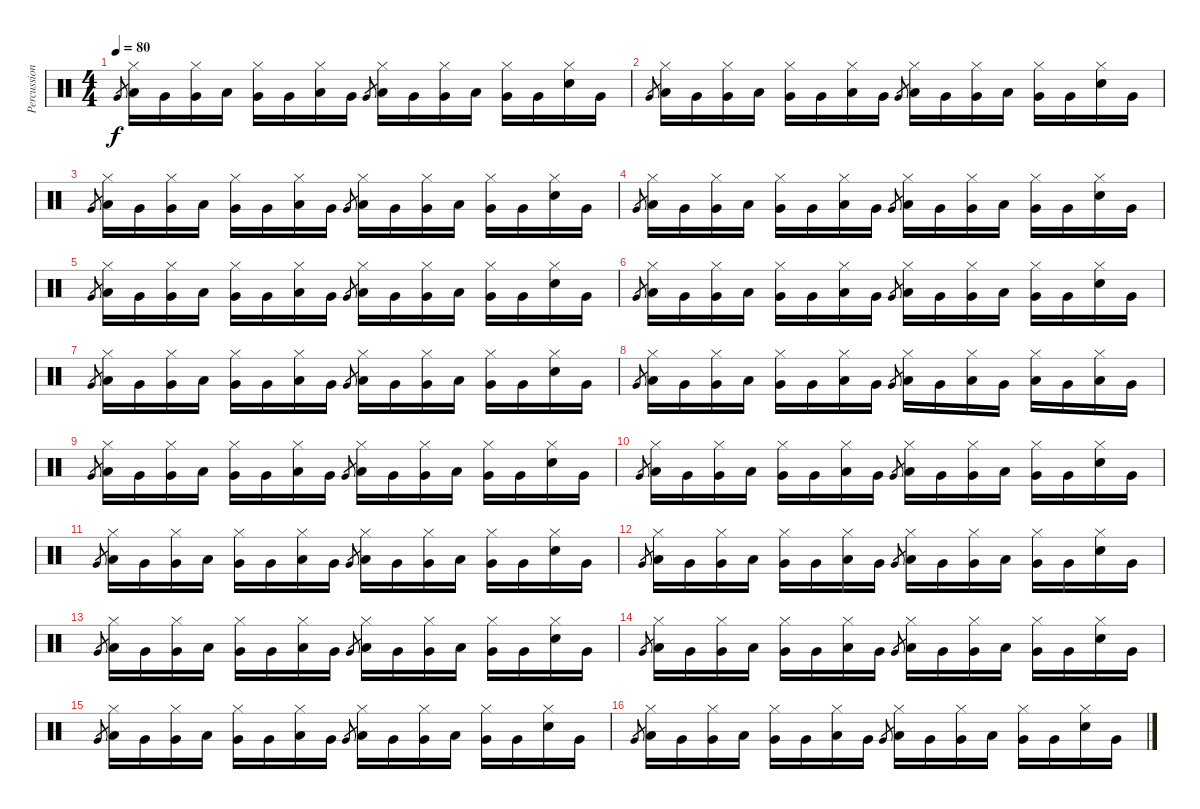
\track ("Percussions" "Percussion") {instrument percussion}
\staff {score}
\articulation defaults
\ts (4 4)
\tempo 80
\clef neutral
\ks c "Very Low Tom (hit)".8{gr dy f}
("Hi-Hat (closed)" "Low Tom (hit)").16 "Very Low Tom (hit)".16 ("Hi-Hat (closed)" "Very Low Tom (hit)").16 "Low Tom (hit)".16 ("Hi-Hat (closed)" "Very Low Tom (hit)").16 "Very Low Tom (hit)".16 ("Hi-Hat (closed)" "Low Tom (hit)").16 "Very Low Tom (hit)".16 "Very Low Tom (hit)".8{gr} ("Hi-Hat (closed)" "Low Tom (hit)").16 "Very Low Tom (hit)".16 ("Hi-Hat (closed)" "Very Low Tom (hit)").16 "Low Tom (hit)".16 ("Hi-Hat (closed)" "Very Low Tom (hit)").16 "Very Low Tom (hit)".16 ("Hi-Hat (closed)" "Snare (hit) 2").16 "Very Low Tom (hit)".16 |
"Very Low Tom (hit)".8{gr} ("Hi-Hat (closed)" "Low Tom (hit)").16 "Very Low Tom (hit)".16 ("Hi-Hat (closed)" "Very Low Tom (hit)").16 "Low Tom (hit)".16 ("Hi-Hat (closed)" "Very Low Tom (hit)").16 "Very Low Tom (hit)".16 ("Hi-Hat (closed)" "Low Tom (hit)").16 "Very Low Tom (hit)".16 "Very Low Tom (hit)".8{gr} ("Hi-Hat (closed)" "Low Tom (hit)").16 "Very Low Tom (hit)".16 ("Hi-Hat (closed)" "Very Low Tom (hit)").16 "Low Tom (hit)".16 ("Hi-Hat (closed)" "Very Low Tom (hit)").16 "Very Low Tom (hit)".16 ("Hi-Hat (closed)" "Snare (hit) 2").16 "Very Low Tom (hit)".16 |
"Very Low Tom (hit)".8{gr} ("Hi-Hat (closed)" "Low Tom (hit)").16 "Very Low Tom (hit)".16 ("Hi-Hat (closed)" "Very Low Tom (hit)").16 "Low Tom (hit)".16 ("Hi-Hat (closed)" "Very Low Tom (hit)").16 "Very Low Tom (hit)".16 ("Hi-Hat (closed)" "Low Tom (hit)").16 "Very Low Tom (hit)".16 "Very Low Tom (hit)".8{gr} ("Hi-Hat (closed)" "Low Tom (hit)").16 "Very Low Tom (hit)".16 ("Hi-Hat (closed)" "Very Low Tom (hit)").16 "Low Tom (hit)".16 ("Hi-Hat (closed)" "Very Low Tom (hit)").16 "Very Low Tom (hit)".16 ("Hi-Hat (closed)" "Snare (hit) 2").16 "Very Low Tom (hit)".16 |
"Very Low Tom (hit)".8{gr} ("Hi-Hat (closed)" "Low Tom (hit)").16 "Very Low Tom (hit)".16 ("Hi-Hat (closed)" "Very Low Tom (hit)").16 "Low Tom (hit)".16 ("Hi-Hat (closed)" "Very Low Tom (hit)").16 "Very Low Tom (hit)".16 ("Hi-Hat (closed)" "Low Tom (hit)").16 "Very Low Tom (hit)".16 "Very Low Tom (hit)".8{gr} ("Hi-Hat (closed)" "Low Tom (hit)").16 "Very Low Tom (hit)".16 ("Hi-Hat (closed)" "Very Low Tom (hit)").16 "Low Tom (hit)".16 ("Hi-Hat (closed)" "Very Low Tom (hit)").16 "Very Low Tom (hit)".16 ("Hi-Hat (closed)" "Snare (hit) 2").16 "Very Low Tom (hit)".16 |
"Very Low Tom (hit)".8{gr} ("Hi-Hat (closed)" "Low Tom (hit)").16 "Very Low Tom (hit)".16 ("Hi-Hat (closed)" "Very Low Tom (hit)").16 "Low Tom (hit)".16 ("Hi-Hat (closed)" "Very Low Tom (hit)").16 "Very Low Tom (hit)".16 ("Hi-Hat (closed)" "Low Tom (hit)").16 "Very Low Tom (hit)".16 "Very Low Tom (hit)".8{gr} ("Hi-Hat (closed)" "Low Tom (hit)").16 "Very Low Tom (hit)".16 ("Hi-Hat (closed)" "Very Low Tom (hit)").16 "Low Tom (hit)".16 ("Hi-Hat (closed)" "Very Low Tom (hit)").16 "Very Low Tom (hit)".16 ("Hi-Hat (closed)" "Snare (hit) 2").16 "Very Low Tom (hit)".16 |
"Very Low Tom (hit)".8{gr} ("Hi-Hat (closed)" "Low Tom (hit)").16 "Very Low Tom (hit)".16 ("Hi-Hat (closed)" "Very Low Tom (hit)").16 "Low Tom (hit)".16 ("Hi-Hat (closed)" "Very Low Tom (hit)").16 "Very Low Tom (hit)".16 ("Hi-Hat (closed)" "Low Tom (hit)").16 "Very Low Tom (hit)".16 "Very Low Tom (hit)".8{gr} ("Hi-Hat (closed)" "Low Tom (hit)").16 "Very Low Tom (hit)".16 ("Hi-Hat (closed)" "Very Low Tom (hit)").16 "Low Tom (hit)".16 ("Hi-Hat (closed)" "Very Low Tom (hit)").16 "Very Low Tom (hit)".16 ("Hi-Hat (closed)" "Snare (hit) 2").16 "Very Low Tom (hit)".16 |
"Very Low Tom (hit)".8{gr} ("Hi-Hat (closed)" "Low Tom (hit)").16 "Very Low Tom (hit)".16 ("Hi-Hat (closed)" "Very Low Tom (hit)").16 "Low Tom (hit)".16 ("Hi-Hat (closed)" "Very Low Tom (hit)").16 "Very Low Tom (hit)".16 ("Hi-Hat (closed)" "Low Tom (hit)").16 "Very Low Tom (hit)".16 "Very Low Tom (hit)".8{gr} ("Hi-Hat (closed)" "Low Tom (hit)").16 "Very Low Tom (hit)".16 ("Hi-Hat (closed)" "Very Low Tom (hit)").16 "Low Tom (hit)".16 ("Hi-Hat (closed)" "Very Low Tom (hit)").16 "Very Low Tom (hit)".16 ("Hi-Hat (closed)" "Snare (hit) 2").16 "Very Low Tom (hit)".16 |
"Very Low Tom (hit)".8{gr} ("Hi-Hat (closed)" "Low Tom (hit)").16 "Very Low Tom (hit)".16 ("Hi-Hat (closed)" "Very Low Tom (hit)").16 "Low Tom (hit)".16 ("Hi-Hat (closed)" "Very Low Tom (hit)").16 "Very Low Tom (hit)".16 ("Hi-Hat (closed)" "Low Tom (hit)").16 "Very Low Tom (hit)".16 "Very Low Tom (hit)".8{gr} ("Hi-Hat (closed)" "Low Tom (hit)").16 "Very Low Tom (hit)".16 ("Hi-Hat (closed)" "Low Tom (hit)").16 "Very Low Tom (hit)".16 ("Hi-Hat (closed)" "Low Tom (hit)").16 "Very Low Tom (hit)".16 ("Hi-Hat (closed)" "Low Tom (hit)").16 "Very Low Tom (hit)".16 |
"Very Low Tom (hit)".8{gr} ("Hi-Hat (closed)" "Low Tom (hit)").16 "Very Low Tom (hit)".16 ("Hi-Hat (closed)" "Very Low Tom (hit)").16 "Low Tom (hit)".16 ("Hi-Hat (closed)" "Very Low Tom (hit)").16 "Very Low Tom (hit)".16 ("Hi-Hat (closed)" "Low Tom (hit)").16 "Very Low Tom (hit)".16 "Very Low Tom (hit)".8{gr} ("Hi-Hat (closed)" "Low Tom (hit)").16 "Very Low Tom (hit)".16 ("Hi-Hat (closed)" "Very Low Tom (hit)").16 "Low Tom (hit)".16 ("Hi-Hat (closed)" "Very Low Tom (hit)").16 "Very Low Tom (hit)".16 ("Hi-Hat (closed)" "Snare (hit) 2").16 "Very Low Tom (hit)".16 |
"Very Low Tom (hit)".8{gr} ("Hi-Hat (closed)" "Low Tom (hit)").16 "Very Low Tom (hit)".16 ("Hi-Hat (closed)" "Very Low Tom (hit)").16 "Low Tom (hit)".16 ("Hi-Hat (closed)" "Very Low Tom (hit)").16 "Very Low Tom (hit)".16 ("Hi-Hat (closed)" "Low Tom (hit)").16 "Very Low Tom (hit)".16 "Very Low Tom (hit)".8{gr} ("Hi-Hat (closed)" "Low Tom (hit)").16 "Very Low Tom (hit)".16 ("Hi-Hat (closed)" "Very Low Tom (hit)").16 "Low Tom (hit)".16 ("Hi-Hat (closed)" "Very Low Tom (hit)").16 "Very Low Tom (hit)".16 ("Hi-Hat (closed)" "Snare (hit) 2").16 "Very Low Tom (hit)".16 |
"Very Low Tom (hit)".8{gr} ("Hi-Hat (closed)" "Low Tom (hit)").16 "Very Low Tom (hit)".16 ("Hi-Hat (closed)" "Very Low Tom (hit)").16 "Low Tom (hit)".16 ("Hi-Hat (closed)" "Very Low Tom (hit)").16 "Very Low Tom (hit)".16 ("Hi-Hat (closed)" "Low Tom (hit)").16 "Very Low Tom (hit)".16 "Very Low Tom (hit)".8{gr} ("Hi-Hat (closed)" "Low Tom (hit)").16 "Very Low Tom (hit)".16 ("Hi-Hat (closed)" "Very Low Tom (hit)").16 "Low Tom (hit)".16 ("Hi-Hat (closed)" "Very Low Tom (hit)").16 "Very Low Tom (hit)".16 ("Hi-Hat (closed)" "Snare (hit) 2").16 "Very Low Tom (hit)".16 |
"Very Low Tom (hit)".8{gr} ("Hi-Hat (closed)" "Low Tom (hit)").16 "Very Low Tom (hit)".16 ("Hi-Hat (closed)" "Very Low Tom (hit)").16 "Low Tom (hit)".16 ("Hi-Hat (closed)" "Very Low Tom (hit)").16 "Very Low Tom (hit)".16 ("Hi-Hat (closed)" "Low Tom (hit)").16 "Very Low Tom (hit)".16 "Very Low Tom (hit)".8{gr} ("Hi-Hat (closed)" "Low Tom (hit)").16 "Very Low Tom (hit)".16 ("Hi-Hat (closed)" "Very Low Tom (hit)").16 "Low Tom (hit)".16 ("Hi-Hat (closed)" "Very Low Tom (hit)").16 "Very Low Tom (hit)".16 ("Hi-Hat (closed)" "Snare (hit) 2").16 "Very Low Tom (hit)".16 |
"Very Low Tom (hit)".8{gr} ("Hi-Hat (closed)" "Low Tom (hit)").16 "Very Low Tom (hit)".16 ("Hi-Hat (closed)" "Very Low Tom (hit)").16 "Low Tom (hit)".16 ("Hi-Hat (closed)" "Very Low Tom (hit)").16 "Very Low Tom (hit)".16 ("Hi-Hat (closed)" "Low Tom (hit)").16 "Very Low Tom (hit)".16 "Very Low Tom (hit)".8{gr} ("Hi-Hat (closed)" "Low Tom (hit)").16 "Very Low Tom (hit)".16 ("Hi-Hat (closed)" "Very Low Tom (hit)").16 "Low Tom (hit)".16 ("Hi-Hat (closed)" "Very Low Tom (hit)").16 "Very Low Tom (hit)".16 ("Hi-Hat (closed)" "Snare (hit) 2").16 "Very Low Tom (hit)".16 |
"Very Low Tom (hit)".8{gr} ("Hi-Hat (closed)" "Low Tom (hit)").16 "Very Low Tom (hit)".16 ("Hi-Hat (closed)" "Very Low Tom (hit)").16 "Low Tom (hit)".16 ("Hi-Hat (closed)" "Very Low Tom (hit)").16 "Very Low Tom (hit)".16 ("Hi-Hat (closed)" "Low Tom (hit)").16 "Very Low Tom (hit)".16 "Very Low Tom (hit)".8{gr} ("Hi-Hat (closed)" "Low Tom (hit)").16 "Very Low Tom (hit)".16 ("Hi-Hat (closed)" "Very Low Tom (hit)").16 "Low Tom (hit)".16 ("Hi-Hat (closed)" "Very Low Tom (hit)").16 "Very Low Tom (hit)".16 ("Hi-Hat (closed)" "Snare (hit) 2").16 "Very Low Tom (hit)".16 |
"Very Low Tom (hit)".8{gr} ("Hi-Hat (closed)" "Low Tom (hit)").16 "Very Low Tom (hit)".16 ("Hi-Hat (closed)" "Very Low Tom (hit)").16 "Low Tom (hit)".16 ("Hi-Hat (closed)" "Very Low Tom (hit)").16 "Very Low Tom (hit)".16 ("Hi-Hat (closed)" "Low Tom (hit)").16 "Very Low Tom (hit)".16 "Very Low Tom (hit)".8{gr} ("Hi-Hat (closed)" "Low Tom (hit)").16 "Very Low Tom (hit)".16 ("Hi-Hat (closed)" "Very Low Tom (hit)").16 "Low Tom (hit)".16 ("Hi-Hat (closed)" "Very Low Tom (hit)").16 "Very Low Tom (hit)".16 ("Hi-Hat (closed)" "Snare (hit) 2").16 "Very Low Tom (hit)".16 |
"Very Low Tom (hit)".8{gr} ("Hi-Hat (closed)" "Low Tom (hit)").16 "Very Low Tom (hit)".16 ("Hi-Hat (closed)" "Very Low Tom (hit)").16 "Low Tom (hit)".16 ("Hi-Hat (closed)" "Very Low Tom (hit)").16 "Very Low Tom (hit)".16 ("Hi-Hat (closed)" "Low Tom (hit)").16 "Very Low Tom (hit)".16 "Very Low Tom (hit)".8{gr} ("Hi-Hat (closed)" "Low Tom (hit)").16 "Very Low Tom (hit)".16 ("Hi-Hat (closed)" "Very Low Tom (hit)").16 "Low Tom (hit)".16 ("Hi-Hat (closed)" "Very Low Tom (hit)").16 "Very Low Tom (hit)".16 ("Hi-Hat (closed)" "Snare (hit) 2").16 "Very Low Tom (hit)".16
